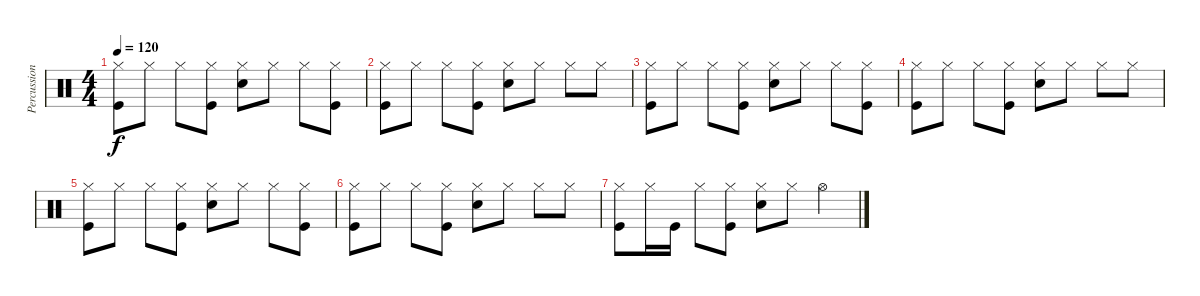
\track ("Percussion" "Percussion") {instrument percussion}
\staff {score}
\articulation defaults
\ts (4 4)
\tempo 120
\clef neutral
\ks c
("Hi-Hat (closed)" "Kick (hit)").8{dy f} "Hi-Hat (closed)".8 "Hi-Hat (closed)".8 ("Hi-Hat (closed)" "Kick (hit)").8 ("Hi-Hat (closed)" "Electric Snare (hit)").8 "Hi-Hat (closed)".8 "Hi-Hat (closed)".8 ("Hi-Hat (closed)" "Kick (hit)").8 |
("Hi-Hat (closed)" "Kick (hit)").8 "Hi-Hat (closed)".8 "Hi-Hat (closed)".8 ("Hi-Hat (closed)" "Kick (hit)").8 ("Hi-Hat (closed)" "Electric Snare (hit)").8 "Hi-Hat (closed)".8 "Hi-Hat (closed)".8 "Hi-Hat (closed)".8 |
("Hi-Hat (closed)" "Kick (hit)").8 "Hi-Hat (closed)".8 "Hi-Hat (closed)".8 ("Hi-Hat (closed)" "Kick (hit)").8 ("Hi-Hat (closed)" "Electric Snare (hit)").8 "Hi-Hat (closed)".8 "Hi-Hat (closed)".8 ("Hi-Hat (closed)" "Kick (hit)").8 |
("Hi-Hat (closed)" "Kick (hit)").8 "Hi-Hat (closed)".8 "Hi-Hat (closed)".8 ("Hi-Hat (closed)" "Kick (hit)").8 ("Hi-Hat (closed)" "Electric Snare (hit)").8 "Hi-Hat (closed)".8 "Hi-Hat (closed)".8 "Hi-Hat (closed)".8 |
("Hi-Hat (closed)" "Kick (hit)").8 "Hi-Hat (closed)".8 "Hi-Hat (closed)".8 ("Hi-Hat (closed)" "Kick (hit)").8 ("Hi-Hat (closed)" "Electric Snare (hit)").8 "Hi-Hat (closed)".8 "Hi-Hat (closed)".8 ("Hi-Hat (closed)" "Kick (hit)").8 |
("Hi-Hat (closed)" "Kick (hit)").8 "Hi-Hat (closed)".8 "Hi-Hat (closed)".8 ("Hi-Hat (closed)" "Kick (hit)").8 ("Hi-Hat (closed)" "Electric Snare (hit)").8 "Hi-Hat (closed)".8 "Hi-Hat (closed)".8 "Hi-Hat (closed)".8 |
("Hi-Hat (closed)" "Kick (hit)").8 "Hi-Hat (closed)".16 "Kick (hit)".16 "Hi-Hat (closed)".8 ("Hi-Hat (closed)" "Kick (hit)").8 ("Hi-Hat (closed)" "Electric Snare (hit)").8 "Hi-Hat (closed)".8 "Hi-Hat (open)".4
